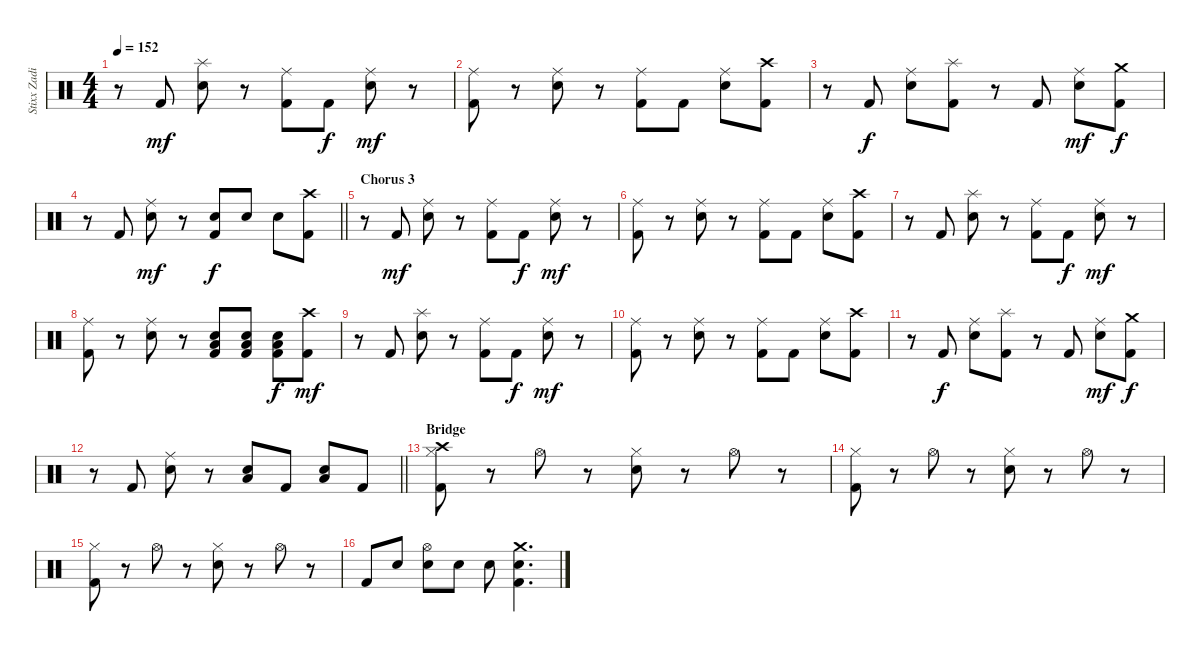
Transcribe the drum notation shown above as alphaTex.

\track ("Stixx Zadinia" "Stixx Zadi") {instrument percussion}
\staff {score}
\articulation defaults
\ts (4 4)
\tempo 152
\clef neutral
\ks c
r.8{dy mf} "Kick (hit) 2".8 ("Splash (hit)" "Snare (hit) 2").8 r.8 ("Ride (middle)" "Kick (hit) 2").8 "Kick (hit) 2".8{dy f} ("Ride (middle)" "Snare (hit) 2").8{dy mf} r.8 |
("Ride (middle)" "Kick (hit) 2").8 r.8 ("Ride (middle)" "Snare (hit) 2").8 r.8 ("Ride (middle)" "Kick (hit) 2").8 "Kick (hit) 2".8 ("Ride (middle)" "Snare (hit) 2").8 ("Crash high (hit)" "Kick (hit) 2").8 |
r.8 "Kick (hit) 2".8{dy f} ("Ride (middle)" "Snare (hit) 2").8 ("Splash (hit)" "Kick (hit) 2").8 r.8 "Kick (hit) 2".8 ("Ride (middle)" "Snare (hit) 2").8{dy mf} ("Crash medium (hit)" "Kick (hit) 2").8{dy f} |
\barLineRight lightlight
r.8 "Kick (hit) 2".8 ("Ride (middle)" "Snare (hit) 2").8{dy mf} r.8 ("Snare (hit) 2" "Kick (hit) 2").8{dy f} "Snare (hit) 2".8 "Snare (hit) 2".8 ("Crash high (hit)" "Kick (hit) 2").8 |
\section ("" "Chorus 3")
r.8 "Kick (hit) 2".8{dy mf} ("Ride (middle)" "Snare (hit) 2").8 r.8 ("Ride (middle)" "Kick (hit) 2").8 "Kick (hit) 2".8{dy f} ("Ride (middle)" "Snare (hit) 2").8{dy mf} r.8 |
("Ride (middle)" "Kick (hit) 2").8 r.8 ("Ride (middle)" "Snare (hit) 2").8 r.8 ("Ride (middle)" "Kick (hit) 2").8 "Kick (hit) 2".8 ("Ride (middle)" "Snare (hit) 2").8 ("Crash high (hit)" "Kick (hit) 2").8 |
r.8 "Kick (hit) 2".8 ("Splash (hit)" "Snare (hit) 2").8 r.8 ("Ride (middle)" "Kick (hit) 2").8 "Kick (hit) 2".8{dy f} ("Ride (middle)" "Snare (hit) 2").8{dy mf} r.8 |
("Ride (middle)" "Kick (hit) 2").8 r.8 ("Ride (middle)" "Snare (hit) 2").8 r.8 ("Low Floor Tom (hit)" "Snare (hit) 2" "Kick (hit) 2").8 ("Low Floor Tom (hit)" "Snare (hit) 2" "Kick (hit) 2").8 ("Low Floor Tom (hit)" "Snare (hit) 2" "Kick (hit) 2").8{dy f} ("Crash high (hit)" "Kick (hit) 2").8{dy mf} |
r.8 "Kick (hit) 2".8 ("Splash (hit)" "Snare (hit) 2").8 r.8 ("Ride (middle)" "Kick (hit) 2").8 "Kick (hit) 2".8{dy f} ("Ride (middle)" "Snare (hit) 2").8{dy mf} r.8 |
("Ride (middle)" "Kick (hit) 2").8 r.8 ("Ride (middle)" "Snare (hit) 2").8 r.8 ("Ride (middle)" "Kick (hit) 2").8 "Kick (hit) 2".8 ("Ride (middle)" "Snare (hit) 2").8 ("Crash high (hit)" "Kick (hit) 2").8 |
r.8 "Kick (hit) 2".8{dy f} ("Ride (middle)" "Snare (hit) 2").8 ("Splash (hit)" "Kick (hit) 2").8 r.8 "Kick (hit) 2".8 ("Ride (middle)" "Snare (hit) 2").8{dy mf} ("Crash medium (hit)" "Kick (hit) 2").8{dy f} |
\barLineRight lightlight
r.8 "Kick (hit) 2".8 ("Ride (middle)" "Snare (hit) 2").8 r.8 ("Low Floor Tom (hit)" "Snare (hit) 2").8 "Kick (hit) 2".8 ("Low Floor Tom (hit)" "Snare (hit) 2").8 "Kick (hit) 2".8 |
\section ("" "Bridge")
("Crash high (hit)" "Hi-Hat (closed)" "Kick (hit) 2").8 r.8 "Hi-Hat (open)".8 r.8 ("Hi-Hat (closed)" "Snare (hit) 2").8 r.8 "Hi-Hat (open)".8 r.8 |
("Hi-Hat (closed)" "Kick (hit) 2").8 r.8 "Hi-Hat (open)".8 r.8 ("Hi-Hat (closed)" "Snare (hit) 2").8 r.8 "Hi-Hat (open)".8 r.8 |
("Hi-Hat (closed)" "Kick (hit) 2").8 r.8 "Hi-Hat (open)".8 r.8 ("Hi-Hat (closed)" "Snare (hit) 2").8 r.8 "Hi-Hat (open)".8 r.8 |
"Kick (hit) 2".8 "Snare (hit) 2".8 ("Hi-Hat (open)" "Snare (hit) 2").8 "Snare (hit) 2".8 "Snare (hit) 2".8 ("Crash medium (hit)" "Snare (hit) 2" "Kick (hit) 2").4{d}
